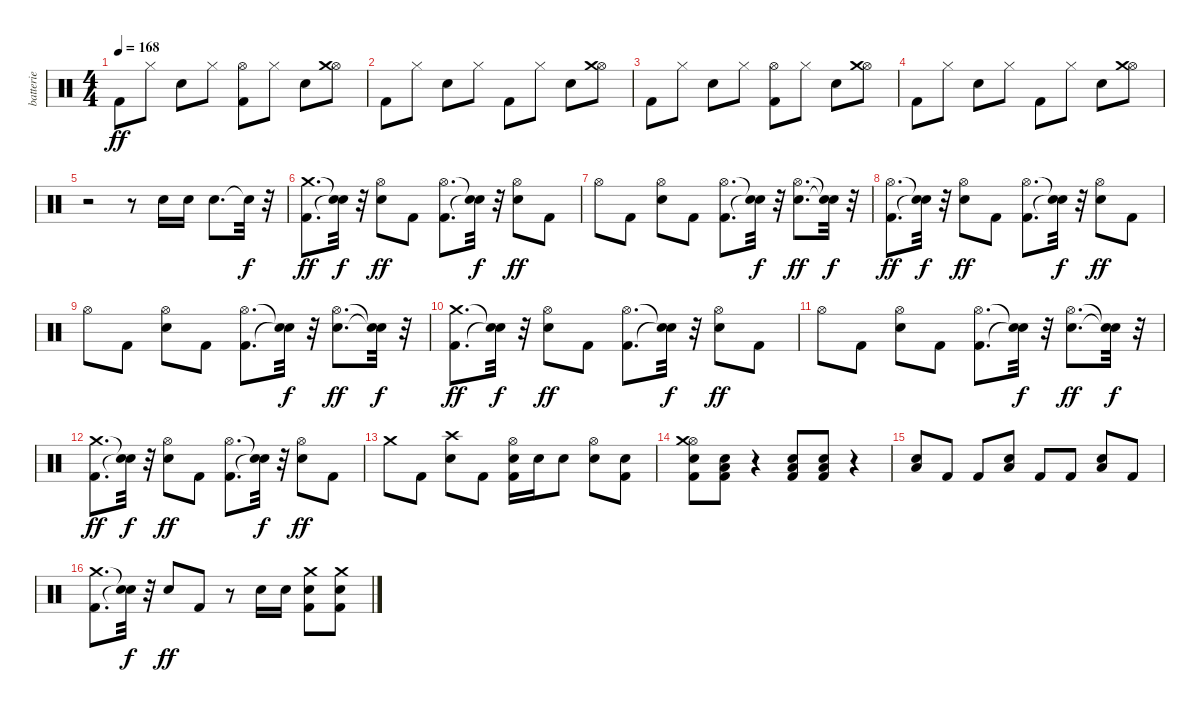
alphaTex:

\track ("batterie" "batterie") {instrument percussion}
\staff {score}
\articulation defaults
\ts (4 4)
\tempo 168
\clef neutral
\ks c "Kick (hit) 2".8{dy ff} "Hi-Hat (closed)".8 "Electric Snare (hit)".8 "Hi-Hat (closed)".8
("Kick (hit) 2" "Hi-Hat (open)").8 "Hi-Hat (closed)".8 "Electric Snare (hit)".8 ("Hi-Hat (open)" "Crash medium (hit)").8 |
"Kick (hit) 2".8 "Hi-Hat (closed)".8 "Electric Snare (hit)".8 "Hi-Hat (closed)".8 "Kick (hit) 2".8 "Hi-Hat (closed)".8 "Electric Snare (hit)".8 ("Hi-Hat (open)" "Crash medium (hit)").8 |
"Kick (hit) 2".8 "Hi-Hat (closed)".8 "Electric Snare (hit)".8 "Hi-Hat (closed)".8 ("Kick (hit) 2" "Hi-Hat (open)").8 "Hi-Hat (closed)".8 "Electric Snare (hit)".8 ("Hi-Hat (open)" "Crash medium (hit)").8 |
"Kick (hit) 2".8 "Hi-Hat (closed)".8 "Electric Snare (hit)".8 "Hi-Hat (closed)".8 "Kick (hit) 2".8 "Hi-Hat (closed)".8 "Electric Snare (hit)".8 ("Hi-Hat (open)" "Crash medium (hit)").8 |
r.2 r.8 "Electric Snare (hit)".16 "Electric Snare (hit)".16 "Electric Snare (hit)".8{d} "Snare (hit)"{t}.32{dy f} r.32 |
("Kick (hit) 2" "Crash medium (hit)").8{d dy ff} ("Snare (hit)"{t} "Snare (hit)"{t}).32{dy f} r.32 ("Electric Snare (hit)" "Hi-Hat (open)").8{dy ff} "Kick (hit) 2".8 ("Kick (hit) 2" "Hi-Hat (open)").8{d} ("Snare (hit)"{t} "Snare (hit)"{t}).32{dy f} r.32 ("Electric Snare (hit)" "Hi-Hat (open)").8{dy ff} "Kick (hit) 2".8 |
"Hi-Hat (open)".8 "Kick (hit) 2".8 ("Electric Snare (hit)" "Hi-Hat (open)").8 "Kick (hit) 2".8 ("Kick (hit) 2" "Hi-Hat (open)").8{d} ("Snare (hit)"{t} "Snare (hit)"{t}).32{dy f} r.32 ("Electric Snare (hit)" "Hi-Hat (open)").8{d dy ff} ("Snare (hit)"{t} "Snare (hit)"{t}).32{dy f} r.32 |
("Kick (hit) 2" "Hi-Hat (open)").8{d dy ff} ("Snare (hit)"{t} "Snare (hit)"{t}).32{dy f} r.32 ("Electric Snare (hit)" "Hi-Hat (open)").8{dy ff} "Kick (hit) 2".8 ("Kick (hit) 2" "Hi-Hat (open)").8{d} ("Snare (hit)"{t} "Snare (hit)"{t}).32{dy f} r.32 ("Electric Snare (hit)" "Hi-Hat (open)").8{dy ff} "Kick (hit) 2".8 |
"Hi-Hat (open)".8 "Kick (hit) 2".8 ("Electric Snare (hit)" "Hi-Hat (open)").8 "Kick (hit) 2".8 ("Kick (hit) 2" "Hi-Hat (open)").8{d} ("Snare (hit)"{t} "Snare (hit)"{t}).32{dy f} r.32 ("Electric Snare (hit)" "Hi-Hat (open)").8{d dy ff} ("Snare (hit)"{t} "Snare (hit)"{t}).32{dy f} r.32 |
("Kick (hit) 2" "Crash medium (hit)").8{d dy ff} ("Snare (hit)"{t} "Snare (hit)"{t}).32{dy f} r.32 ("Electric Snare (hit)" "Hi-Hat (open)").8{dy ff} "Kick (hit) 2".8 ("Kick (hit) 2" "Hi-Hat (open)").8{d} ("Snare (hit)"{t} "Snare (hit)"{t}).32{dy f} r.32 ("Electric Snare (hit)" "Hi-Hat (open)").8{dy ff} "Kick (hit) 2".8 |
"Hi-Hat (open)".8 "Kick (hit) 2".8 ("Electric Snare (hit)" "Hi-Hat (open)").8 "Kick (hit) 2".8 ("Kick (hit) 2" "Hi-Hat (open)").8{d} ("Snare (hit)"{t} "Snare (hit)"{t}).32{dy f} r.32 ("Electric Snare (hit)" "Hi-Hat (open)").8{d dy ff} ("Snare (hit)"{t} "Snare (hit)"{t}).32{dy f} r.32 |
("Kick (hit) 2" "Crash medium (hit)").8{d dy ff} ("Snare (hit)"{t} "Snare (hit)"{t}).32{dy f} r.32 ("Electric Snare (hit)" "Hi-Hat (open)").8{dy ff} "Kick (hit) 2".8 ("Kick (hit) 2" "Hi-Hat (open)").8{d} ("Snare (hit)"{t} "Snare (hit)"{t}).32{dy f} r.32 ("Electric Snare (hit)" "Hi-Hat (open)").8{dy ff} "Kick (hit) 2".8 |
"Crash medium (hit)".8 "Kick (hit) 2".8 ("Electric Snare (hit)" "Crash high (hit)").8 "Kick (hit) 2".8 ("Kick (hit) 2" "Electric Snare (hit)" "Hi-Hat (open)").16 "Electric Snare (hit)".16 "Electric Snare (hit)".8 ("Electric Snare (hit)" "Hi-Hat (open)").8 ("Kick (hit) 2" "Electric Snare (hit)").8 |
("Kick (hit) 2" "Electric Snare (hit)" "Hi-Hat (open)" "Crash medium (hit)").8 ("Kick (hit) 2" "Electric Snare (hit)" "Low Tom (hit)").8 r.4 ("Kick (hit) 2" "Electric Snare (hit)" "Low Tom (hit)").8 ("Kick (hit) 2" "Electric Snare (hit)" "Low Tom (hit)").8 r.4 |
("Electric Snare (hit)" "Low Floor Tom (hit)").8 "Kick (hit) 2".8 "Kick (hit) 2".8 ("Electric Snare (hit)" "Low Floor Tom (hit)").8 "Kick (hit) 2".8 "Kick (hit) 2".8 ("Electric Snare (hit)" "Low Floor Tom (hit)").8 "Kick (hit) 2".8 |
("Kick (hit) 2" "Crash medium (hit)").8{d} ("Snare (hit)"{t} "Snare (hit)"{t}).32{dy f} r.32 "Electric Snare (hit)".8{dy ff} "Kick (hit) 2".8 r.8 "Electric Snare (hit)".16 "Electric Snare (hit)".16 ("Kick (hit) 2" "Electric Snare (hit)" "Crash medium (hit)").8 ("Kick (hit) 2" "Electric Snare (hit)" "Crash medium (hit)").8
